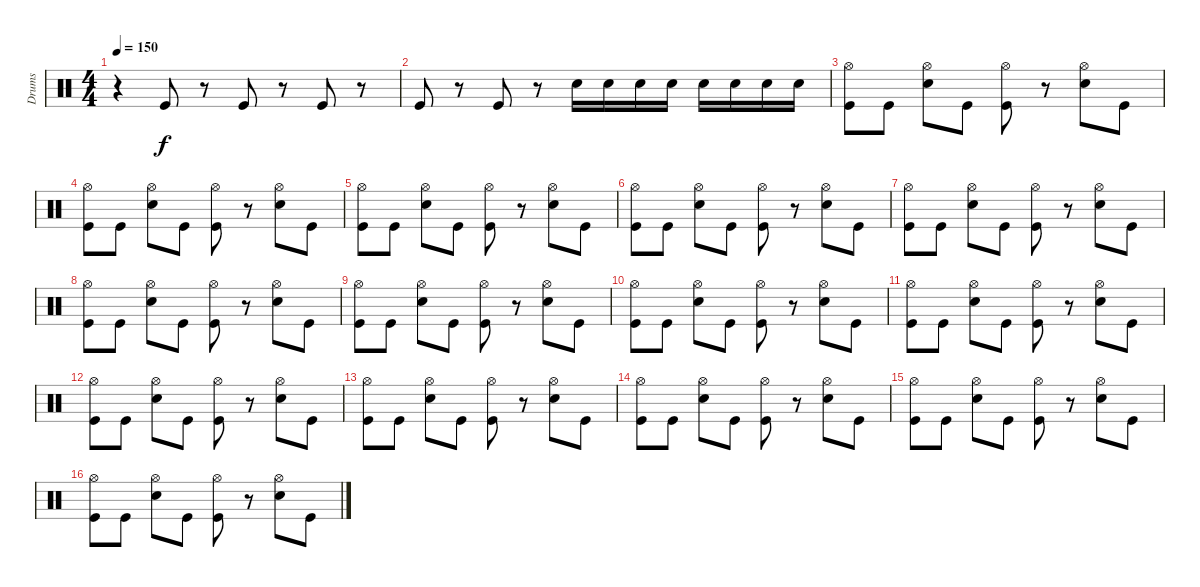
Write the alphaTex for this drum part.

\track ("Drums" "Drums") {instrument percussion}
\staff {score}
\articulation defaults
\ts (4 4)
\tempo 150
\clef neutral
\ks c
r.4{dy f} "Kick (hit)".8 r.8 "Kick (hit)".8 r.8 "Kick (hit)".8 r.8 |
"Kick (hit)".8 r.8 "Kick (hit)".8 r.8 "Snare (hit) 2".16 "Snare (hit) 2".16 "Snare (hit) 2".16 "Snare (hit) 2".16 "Snare (hit) 2".16 "Snare (hit) 2".16 "Snare (hit) 2".16 "Snare (hit) 2".16 |
("Hi-Hat (open)" "Kick (hit)").8 "Kick (hit)".8 ("Hi-Hat (open)" "Snare (hit) 2").8 "Kick (hit)".8 ("Hi-Hat (open)" "Kick (hit)").8 r.8 ("Hi-Hat (open)" "Snare (hit) 2").8 "Kick (hit)".8 |
("Hi-Hat (open)" "Kick (hit)").8 "Kick (hit)".8 ("Hi-Hat (open)" "Snare (hit) 2").8 "Kick (hit)".8 ("Hi-Hat (open)" "Kick (hit)").8 r.8 ("Hi-Hat (open)" "Snare (hit) 2").8 "Kick (hit)".8 |
("Hi-Hat (open)" "Kick (hit)").8 "Kick (hit)".8 ("Hi-Hat (open)" "Snare (hit) 2").8 "Kick (hit)".8 ("Hi-Hat (open)" "Kick (hit)").8 r.8 ("Hi-Hat (open)" "Snare (hit) 2").8 "Kick (hit)".8 |
("Hi-Hat (open)" "Kick (hit)").8 "Kick (hit)".8 ("Hi-Hat (open)" "Snare (hit) 2").8 "Kick (hit)".8 ("Hi-Hat (open)" "Kick (hit)").8 r.8 ("Hi-Hat (open)" "Snare (hit) 2").8 "Kick (hit)".8 |
("Hi-Hat (open)" "Kick (hit)").8 "Kick (hit)".8 ("Hi-Hat (open)" "Snare (hit) 2").8 "Kick (hit)".8 ("Hi-Hat (open)" "Kick (hit)").8 r.8 ("Hi-Hat (open)" "Snare (hit) 2").8 "Kick (hit)".8 |
("Hi-Hat (open)" "Kick (hit)").8 "Kick (hit)".8 ("Hi-Hat (open)" "Snare (hit) 2").8 "Kick (hit)".8 ("Hi-Hat (open)" "Kick (hit)").8 r.8 ("Hi-Hat (open)" "Snare (hit) 2").8 "Kick (hit)".8 |
("Hi-Hat (open)" "Kick (hit)").8 "Kick (hit)".8 ("Hi-Hat (open)" "Snare (hit) 2").8 "Kick (hit)".8 ("Hi-Hat (open)" "Kick (hit)").8 r.8 ("Hi-Hat (open)" "Snare (hit) 2").8 "Kick (hit)".8 |
("Hi-Hat (open)" "Kick (hit)").8 "Kick (hit)".8 ("Hi-Hat (open)" "Snare (hit) 2").8 "Kick (hit)".8 ("Hi-Hat (open)" "Kick (hit)").8 r.8 ("Hi-Hat (open)" "Snare (hit) 2").8 "Kick (hit)".8 |
("Hi-Hat (open)" "Kick (hit)").8 "Kick (hit)".8 ("Hi-Hat (open)" "Snare (hit) 2").8 "Kick (hit)".8 ("Hi-Hat (open)" "Kick (hit)").8 r.8 ("Hi-Hat (open)" "Snare (hit) 2").8 "Kick (hit)".8 |
("Hi-Hat (open)" "Kick (hit)").8 "Kick (hit)".8 ("Hi-Hat (open)" "Snare (hit) 2").8 "Kick (hit)".8 ("Hi-Hat (open)" "Kick (hit)").8 r.8 ("Hi-Hat (open)" "Snare (hit) 2").8 "Kick (hit)".8 |
("Hi-Hat (open)" "Kick (hit)").8 "Kick (hit)".8 ("Hi-Hat (open)" "Snare (hit) 2").8 "Kick (hit)".8 ("Hi-Hat (open)" "Kick (hit)").8 r.8 ("Hi-Hat (open)" "Snare (hit) 2").8 "Kick (hit)".8 |
("Hi-Hat (open)" "Kick (hit)").8 "Kick (hit)".8 ("Hi-Hat (open)" "Snare (hit) 2").8 "Kick (hit)".8 ("Hi-Hat (open)" "Kick (hit)").8 r.8 ("Hi-Hat (open)" "Snare (hit) 2").8 "Kick (hit)".8 |
("Hi-Hat (open)" "Kick (hit)").8 "Kick (hit)".8 ("Hi-Hat (open)" "Snare (hit) 2").8 "Kick (hit)".8 ("Hi-Hat (open)" "Kick (hit)").8 r.8 ("Hi-Hat (open)" "Snare (hit) 2").8 "Kick (hit)".8 |
("Hi-Hat (open)" "Kick (hit)").8 "Kick (hit)".8 ("Hi-Hat (open)" "Snare (hit) 2").8 "Kick (hit)".8 ("Hi-Hat (open)" "Kick (hit)").8 r.8 ("Hi-Hat (open)" "Snare (hit) 2").8 "Kick (hit)".8
